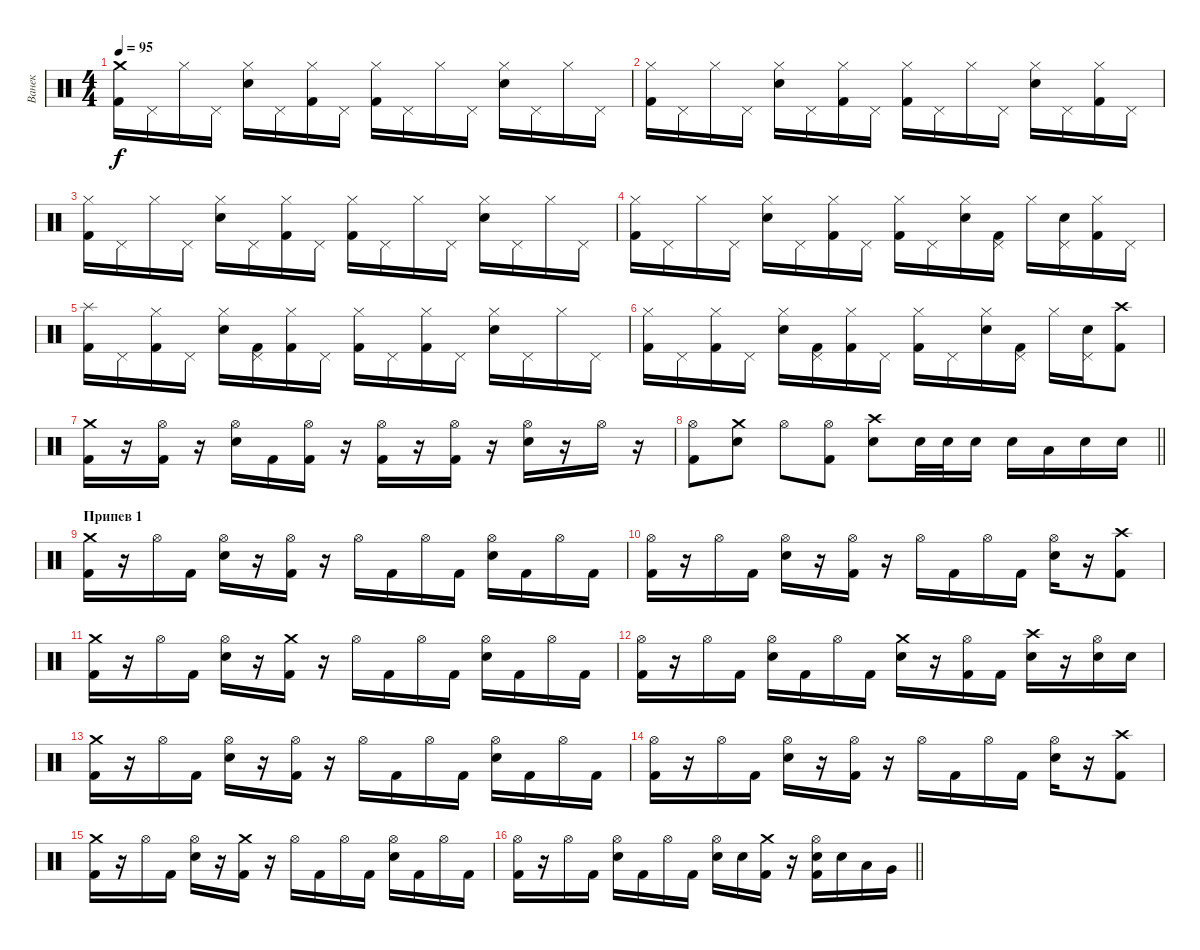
\track ("Ванек" "Ванек") {instrument percussion}
\staff {score}
\articulation defaults
\ts (4 4)
\tempo 95
\clef neutral
\ks c
("Crash medium (hit)" "Kick (hit) 2").16{dy f} "Pedal Hi-Hat (hit)".16 "Hi-Hat (closed)".16 "Pedal Hi-Hat (hit)".16 ("Hi-Hat (closed)" "Snare (hit) 2").16 "Pedal Hi-Hat (hit)".16 ("Hi-Hat (closed)" "Kick (hit) 2").16 "Pedal Hi-Hat (hit)".16 ("Hi-Hat (closed)" "Kick (hit) 2").16 "Pedal Hi-Hat (hit)".16 "Hi-Hat (closed)".16 "Pedal Hi-Hat (hit)".16 ("Hi-Hat (closed)" "Snare (hit) 2").16 "Pedal Hi-Hat (hit)".16 "Hi-Hat (closed)".16 "Pedal Hi-Hat (hit)".16 |
("Hi-Hat (closed)" "Kick (hit) 2").16 "Pedal Hi-Hat (hit)".16 "Hi-Hat (closed)".16 "Pedal Hi-Hat (hit)".16 ("Hi-Hat (closed)" "Snare (hit) 2").16 "Pedal Hi-Hat (hit)".16 ("Hi-Hat (closed)" "Kick (hit) 2").16 "Pedal Hi-Hat (hit)".16 ("Hi-Hat (closed)" "Kick (hit) 2").16 "Pedal Hi-Hat (hit)".16 "Hi-Hat (closed)".16 "Pedal Hi-Hat (hit)".16 ("Hi-Hat (closed)" "Snare (hit) 2").16 "Pedal Hi-Hat (hit)".16 ("Hi-Hat (closed)" "Kick (hit) 2").16 "Pedal Hi-Hat (hit)".16 |
("Hi-Hat (closed)" "Kick (hit) 2").16 "Pedal Hi-Hat (hit)".16 "Hi-Hat (closed)".16 "Pedal Hi-Hat (hit)".16 ("Hi-Hat (closed)" "Snare (hit) 2").16 "Pedal Hi-Hat (hit)".16 ("Hi-Hat (closed)" "Kick (hit) 2").16 "Pedal Hi-Hat (hit)".16 ("Hi-Hat (closed)" "Kick (hit) 2").16 "Pedal Hi-Hat (hit)".16 "Hi-Hat (closed)".16 "Pedal Hi-Hat (hit)".16 ("Hi-Hat (closed)" "Snare (hit) 2").16 "Pedal Hi-Hat (hit)".16 "Hi-Hat (closed)".16 "Pedal Hi-Hat (hit)".16 |
("Hi-Hat (closed)" "Kick (hit) 2").16 "Pedal Hi-Hat (hit)".16 "Hi-Hat (closed)".16 "Pedal Hi-Hat (hit)".16 ("Hi-Hat (closed)" "Snare (hit) 2").16 "Pedal Hi-Hat (hit)".16 ("Hi-Hat (closed)" "Kick (hit) 2").16 "Pedal Hi-Hat (hit)".16 ("Hi-Hat (closed)" "Kick (hit) 2").16 "Pedal Hi-Hat (hit)".16 ("Hi-Hat (closed)" "Snare (hit) 2").16 ("Pedal Hi-Hat (hit)" "Kick (hit) 2").16 "Hi-Hat (closed)".16 ("Pedal Hi-Hat (hit)" "Snare (hit) 2").16 ("Hi-Hat (closed)" "Kick (hit) 2").16 "Pedal Hi-Hat (hit)".16 |
("Splash (hit)" "Kick (hit) 2").16 "Pedal Hi-Hat (hit)".16 ("Hi-Hat (closed)" "Kick (hit) 2").16 "Pedal Hi-Hat (hit)".16 ("Hi-Hat (closed)" "Snare (hit) 2").16 ("Pedal Hi-Hat (hit)" "Kick (hit) 2").16 ("Hi-Hat (closed)" "Kick (hit) 2").16 "Pedal Hi-Hat (hit)".16 ("Hi-Hat (closed)" "Kick (hit) 2").16 "Pedal Hi-Hat (hit)".16 ("Hi-Hat (closed)" "Kick (hit) 2").16 "Pedal Hi-Hat (hit)".16 ("Hi-Hat (closed)" "Snare (hit) 2").16 "Pedal Hi-Hat (hit)".16 "Hi-Hat (closed)".16 "Pedal Hi-Hat (hit)".16 |
("Hi-Hat (closed)" "Kick (hit) 2").16 "Pedal Hi-Hat (hit)".16 ("Hi-Hat (closed)" "Kick (hit) 2").16 "Pedal Hi-Hat (hit)".16 ("Hi-Hat (closed)" "Snare (hit) 2").16 ("Pedal Hi-Hat (hit)" "Kick (hit) 2").16 ("Hi-Hat (closed)" "Kick (hit) 2").16 "Pedal Hi-Hat (hit)".16 ("Hi-Hat (closed)" "Kick (hit) 2").16 "Pedal Hi-Hat (hit)".16 ("Hi-Hat (closed)" "Snare (hit) 2").16 ("Pedal Hi-Hat (hit)" "Kick (hit) 2").16 "Hi-Hat (closed)".16 ("Pedal Hi-Hat (hit)" "Snare (hit) 2").16 ("Crash high (hit)" "Kick (hit) 2").8 |
("Crash medium (hit)" "Kick (hit) 2").16 r.16 ("Hi-Hat (open)" "Kick (hit) 2").16 r.16 ("Hi-Hat (open)" "Snare (hit) 2").16 "Kick (hit) 2".16 ("Hi-Hat (open)" "Kick (hit) 2").16 r.16 ("Hi-Hat (open)" "Kick (hit) 2").16 r.16 ("Hi-Hat (open)" "Kick (hit) 2").16 r.16 ("Hi-Hat (open)" "Snare (hit) 2").16 r.16 "Hi-Hat (open)".16 r.16 |
\barLineRight lightlight
("Hi-Hat (open)" "Kick (hit) 2").8 ("Crash medium (hit)" "Snare (hit) 2").8 "Hi-Hat (open)".8 ("Hi-Hat (open)" "Kick (hit) 2").8 ("Crash high (hit)" "Snare (hit) 2").8 "Snare (hit) 2".32 "Snare (hit) 2".32 "Snare (hit) 2".16 "Snare (hit) 2".16 "Low Floor Tom (hit)".16 "Snare (hit) 2".16 "Snare (hit) 2".16 |
\section ("" "Припев 1")
("Crash medium (hit)" "Kick (hit) 2").16 r.16 "Hi-Hat (open)".16 "Kick (hit) 2".16 ("Hi-Hat (open)" "Snare (hit) 2").16 r.16 ("Hi-Hat (open)" "Kick (hit) 2").16 r.16 "Hi-Hat (open)".16 "Kick (hit) 2".16 "Hi-Hat (open)".16 "Kick (hit) 2".16 ("Hi-Hat (open)" "Snare (hit) 2").16 "Kick (hit) 2".16 "Hi-Hat (open)".16 "Kick (hit) 2".16 |
("Hi-Hat (open)" "Kick (hit) 2").16 r.16 "Hi-Hat (open)".16 "Kick (hit) 2".16 ("Hi-Hat (open)" "Snare (hit) 2").16 r.16 ("Hi-Hat (open)" "Kick (hit) 2").16 r.16 "Hi-Hat (open)".16 "Kick (hit) 2".16 "Hi-Hat (open)".16 "Kick (hit) 2".16 ("Hi-Hat (open)" "Snare (hit) 2").16 r.16 ("Crash high (hit)" "Kick (hit) 2").8 |
("Crash medium (hit)" "Kick (hit) 2").16 r.16 "Hi-Hat (open)".16 "Kick (hit) 2".16 ("Hi-Hat (open)" "Snare (hit) 2").16 r.16 ("Crash medium (hit)" "Kick (hit) 2").16 r.16 "Hi-Hat (open)".16 "Kick (hit) 2".16 "Hi-Hat (open)".16 "Kick (hit) 2".16 ("Hi-Hat (open)" "Snare (hit) 2").16 "Kick (hit) 2".16 "Hi-Hat (open)".16 "Kick (hit) 2".16 |
("Hi-Hat (open)" "Kick (hit) 2").16 r.16 "Hi-Hat (open)".16 "Kick (hit) 2".16 ("Hi-Hat (open)" "Snare (hit) 2").16 "Kick (hit) 2".16 "Hi-Hat (open)".16 "Kick (hit) 2".16 ("Crash medium (hit)" "Snare (hit) 2").16 r.16 ("Hi-Hat (open)" "Kick (hit) 2").16 "Kick (hit) 2".16 ("Crash high (hit)" "Snare (hit) 2").16 r.16 ("Hi-Hat (open)" "Snare (hit) 2").16 "Snare (hit) 2".16 |
("Crash medium (hit)" "Kick (hit) 2").16 r.16 "Hi-Hat (open)".16 "Kick (hit) 2".16 ("Hi-Hat (open)" "Snare (hit) 2").16 r.16 ("Hi-Hat (open)" "Kick (hit) 2").16 r.16 "Hi-Hat (open)".16 "Kick (hit) 2".16 "Hi-Hat (open)".16 "Kick (hit) 2".16 ("Hi-Hat (open)" "Snare (hit) 2").16 "Kick (hit) 2".16 "Hi-Hat (open)".16 "Kick (hit) 2".16 |
("Hi-Hat (open)" "Kick (hit) 2").16 r.16 "Hi-Hat (open)".16 "Kick (hit) 2".16 ("Hi-Hat (open)" "Snare (hit) 2").16 r.16 ("Hi-Hat (open)" "Kick (hit) 2").16 r.16 "Hi-Hat (open)".16 "Kick (hit) 2".16 "Hi-Hat (open)".16 "Kick (hit) 2".16 ("Hi-Hat (open)" "Snare (hit) 2").16 r.16 ("Crash high (hit)" "Kick (hit) 2").8 |
("Crash medium (hit)" "Kick (hit) 2").16 r.16 "Hi-Hat (open)".16 "Kick (hit) 2".16 ("Hi-Hat (open)" "Snare (hit) 2").16 r.16 ("Crash medium (hit)" "Kick (hit) 2").16 r.16 "Hi-Hat (open)".16 "Kick (hit) 2".16 "Hi-Hat (open)".16 "Kick (hit) 2".16 ("Hi-Hat (open)" "Snare (hit) 2").16 "Kick (hit) 2".16 "Hi-Hat (open)".16 "Kick (hit) 2".16 |
\barLineRight lightlight
("Hi-Hat (open)" "Kick (hit) 2").16 r.16 "Hi-Hat (open)".16 "Kick (hit) 2".16 ("Hi-Hat (open)" "Snare (hit) 2").16 "Kick (hit) 2".16 "Hi-Hat (open)".16 "Kick (hit) 2".16 ("Hi-Hat (open)" "Snare (hit) 2").16 "Snare (hit) 2".16 ("Crash medium (hit)" "Kick (hit) 2").16 r.16 ("Hi-Hat (open)" "Snare (hit) 2" "Kick (hit) 2").16 "Snare (hit) 2".16 "Low Floor Tom (hit)".16 "Very Low Tom (hit)".16
